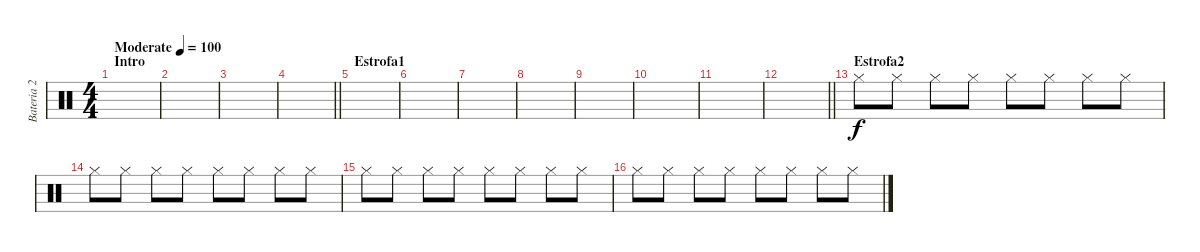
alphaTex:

\track ("Bateria 2" "Bateria 2") {instrument percussion}
\staff {score}
\articulation defaults
\ts (4 4)
\section ("" "Intro")
\tempo (100 "Moderate")
\clef neutral
\ks c
|
|
|
\barLineRight lightlight
|
\section ("" "Estrofa1")
|
|
|
|
|
|
|
\barLineRight lightlight
|
\section ("" "Estrofa2")
"Hi-Hat (closed)".8 "Hi-Hat (closed)".8 "Hi-Hat (closed)".8 "Hi-Hat (closed)".8 "Hi-Hat (closed)".8 "Hi-Hat (closed)".8 "Hi-Hat (closed)".8 "Hi-Hat (closed)".8 |
"Hi-Hat (closed)".8 "Hi-Hat (closed)".8 "Hi-Hat (closed)".8 "Hi-Hat (closed)".8 "Hi-Hat (closed)".8 "Hi-Hat (closed)".8 "Hi-Hat (closed)".8 "Hi-Hat (closed)".8 |
"Hi-Hat (closed)".8 "Hi-Hat (closed)".8 "Hi-Hat (closed)".8 "Hi-Hat (closed)".8 "Hi-Hat (closed)".8 "Hi-Hat (closed)".8 "Hi-Hat (closed)".8 "Hi-Hat (closed)".8 |
"Hi-Hat (closed)".8 "Hi-Hat (closed)".8 "Hi-Hat (closed)".8 "Hi-Hat (closed)".8 "Hi-Hat (closed)".8 "Hi-Hat (closed)".8 "Hi-Hat (closed)".8 "Hi-Hat (closed)".8
